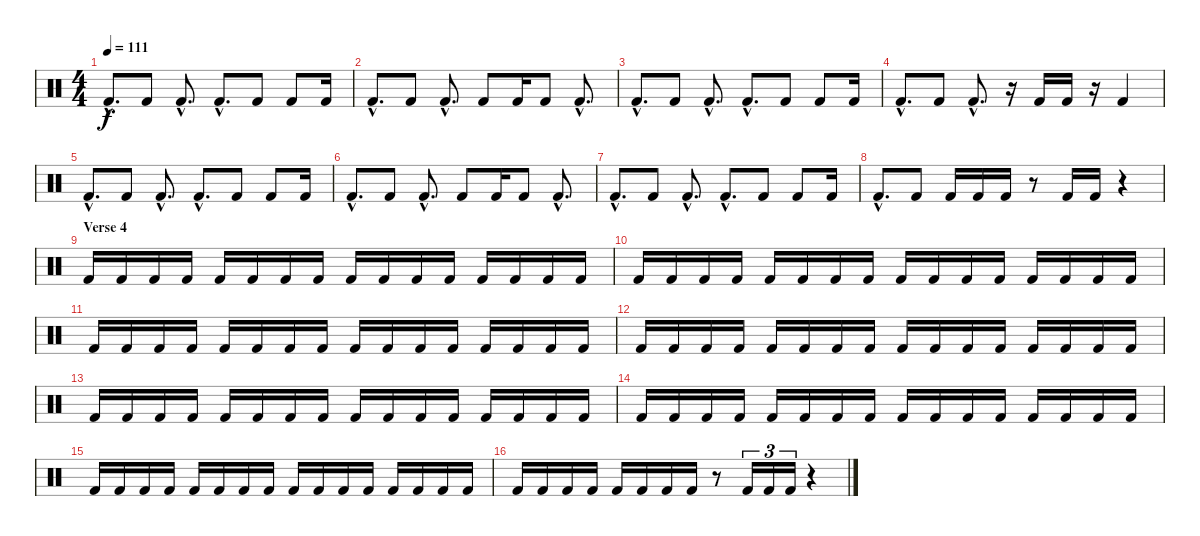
\track "" {instrument percussion}
\staff {score}
\articulation defaults
\ts (4 4)
\tempo 111
\clef neutral
\ks c "Kick (hit) 2"{hac}.8{d dy f} "Kick (hit) 2".8 "Kick (hit) 2"{hac}.8{d} "Kick (hit) 2"{hac}.8{d} "Kick (hit) 2".8 "Kick (hit) 2".8 "Kick (hit) 2".16
|
"Kick (hit) 2"{hac}.8{d} "Kick (hit) 2".8 "Kick (hit) 2"{hac}.8{d} "Kick (hit) 2".8 "Kick (hit) 2".16 "Kick (hit) 2".8 "Kick (hit) 2"{hac}.8{d} |
"Kick (hit) 2"{hac}.8{d} "Kick (hit) 2".8 "Kick (hit) 2"{hac}.8{d} "Kick (hit) 2"{hac}.8{d} "Kick (hit) 2".8 "Kick (hit) 2".8 "Kick (hit) 2".16 |
"Kick (hit) 2"{hac}.8{d} "Kick (hit) 2".8 "Kick (hit) 2"{hac}.8{d} r.16 "Kick (hit) 2".16 "Kick (hit) 2".16 r.16 "Kick (hit) 2".4 |
"Kick (hit) 2"{hac}.8{d} "Kick (hit) 2".8 "Kick (hit) 2"{hac}.8{d} "Kick (hit) 2"{hac}.8{d} "Kick (hit) 2".8 "Kick (hit) 2".8 "Kick (hit) 2".16 |
"Kick (hit) 2"{hac}.8{d} "Kick (hit) 2".8 "Kick (hit) 2"{hac}.8{d} "Kick (hit) 2".8 "Kick (hit) 2".16 "Kick (hit) 2".8 "Kick (hit) 2"{hac}.8{d} |
"Kick (hit) 2"{hac}.8{d} "Kick (hit) 2".8 "Kick (hit) 2"{hac}.8{d} "Kick (hit) 2"{hac}.8{d} "Kick (hit) 2".8 "Kick (hit) 2".8 "Kick (hit) 2".16 |
"Kick (hit) 2"{hac}.8{d} "Kick (hit) 2".8 "Kick (hit) 2".16 "Kick (hit) 2".16 "Kick (hit) 2".16 r.8 "Kick (hit) 2".16 "Kick (hit) 2".16 r.4 |
\section ("" "Verse 4")
"Kick (hit) 2".16 "Kick (hit) 2".16 "Kick (hit) 2".16 "Kick (hit) 2".16 "Kick (hit) 2".16 "Kick (hit) 2".16 "Kick (hit) 2".16 "Kick (hit) 2".16 "Kick (hit) 2".16 "Kick (hit) 2".16 "Kick (hit) 2".16 "Kick (hit) 2".16 "Kick (hit) 2".16 "Kick (hit) 2".16 "Kick (hit) 2".16 "Kick (hit) 2".16 |
"Kick (hit) 2".16 "Kick (hit) 2".16 "Kick (hit) 2".16 "Kick (hit) 2".16 "Kick (hit) 2".16 "Kick (hit) 2".16 "Kick (hit) 2".16 "Kick (hit) 2".16 "Kick (hit) 2".16 "Kick (hit) 2".16 "Kick (hit) 2".16 "Kick (hit) 2".16 "Kick (hit) 2".16 "Kick (hit) 2".16 "Kick (hit) 2".16 "Kick (hit) 2".16 |
"Kick (hit) 2".16 "Kick (hit) 2".16 "Kick (hit) 2".16 "Kick (hit) 2".16 "Kick (hit) 2".16 "Kick (hit) 2".16 "Kick (hit) 2".16 "Kick (hit) 2".16 "Kick (hit) 2".16 "Kick (hit) 2".16 "Kick (hit) 2".16 "Kick (hit) 2".16 "Kick (hit) 2".16 "Kick (hit) 2".16 "Kick (hit) 2".16 "Kick (hit) 2".16 |
"Kick (hit) 2".16 "Kick (hit) 2".16 "Kick (hit) 2".16 "Kick (hit) 2".16 "Kick (hit) 2".16 "Kick (hit) 2".16 "Kick (hit) 2".16 "Kick (hit) 2".16 "Kick (hit) 2".16 "Kick (hit) 2".16 "Kick (hit) 2".16 "Kick (hit) 2".16 "Kick (hit) 2".16 "Kick (hit) 2".16 "Kick (hit) 2".16 "Kick (hit) 2".16 |
"Kick (hit) 2".16 "Kick (hit) 2".16 "Kick (hit) 2".16 "Kick (hit) 2".16 "Kick (hit) 2".16 "Kick (hit) 2".16 "Kick (hit) 2".16 "Kick (hit) 2".16 "Kick (hit) 2".16 "Kick (hit) 2".16 "Kick (hit) 2".16 "Kick (hit) 2".16 "Kick (hit) 2".16 "Kick (hit) 2".16 "Kick (hit) 2".16 "Kick (hit) 2".16 |
"Kick (hit) 2".16 "Kick (hit) 2".16 "Kick (hit) 2".16 "Kick (hit) 2".16 "Kick (hit) 2".16 "Kick (hit) 2".16 "Kick (hit) 2".16 "Kick (hit) 2".16 "Kick (hit) 2".16 "Kick (hit) 2".16 "Kick (hit) 2".16 "Kick (hit) 2".16 "Kick (hit) 2".16 "Kick (hit) 2".16 "Kick (hit) 2".16 "Kick (hit) 2".16 |
"Kick (hit) 2".16 "Kick (hit) 2".16 "Kick (hit) 2".16 "Kick (hit) 2".16 "Kick (hit) 2".16 "Kick (hit) 2".16 "Kick (hit) 2".16 "Kick (hit) 2".16 "Kick (hit) 2".16 "Kick (hit) 2".16 "Kick (hit) 2".16 "Kick (hit) 2".16 "Kick (hit) 2".16 "Kick (hit) 2".16 "Kick (hit) 2".16 "Kick (hit) 2".16 |
"Kick (hit) 2".16 "Kick (hit) 2".16 "Kick (hit) 2".16 "Kick (hit) 2".16 "Kick (hit) 2".16 "Kick (hit) 2".16 "Kick (hit) 2".16 "Kick (hit) 2".16 r.8 "Kick (hit) 2".16{tu (3 2)} "Kick (hit) 2".16{tu (3 2)} "Kick (hit) 2".16{tu (3 2)} r.4
